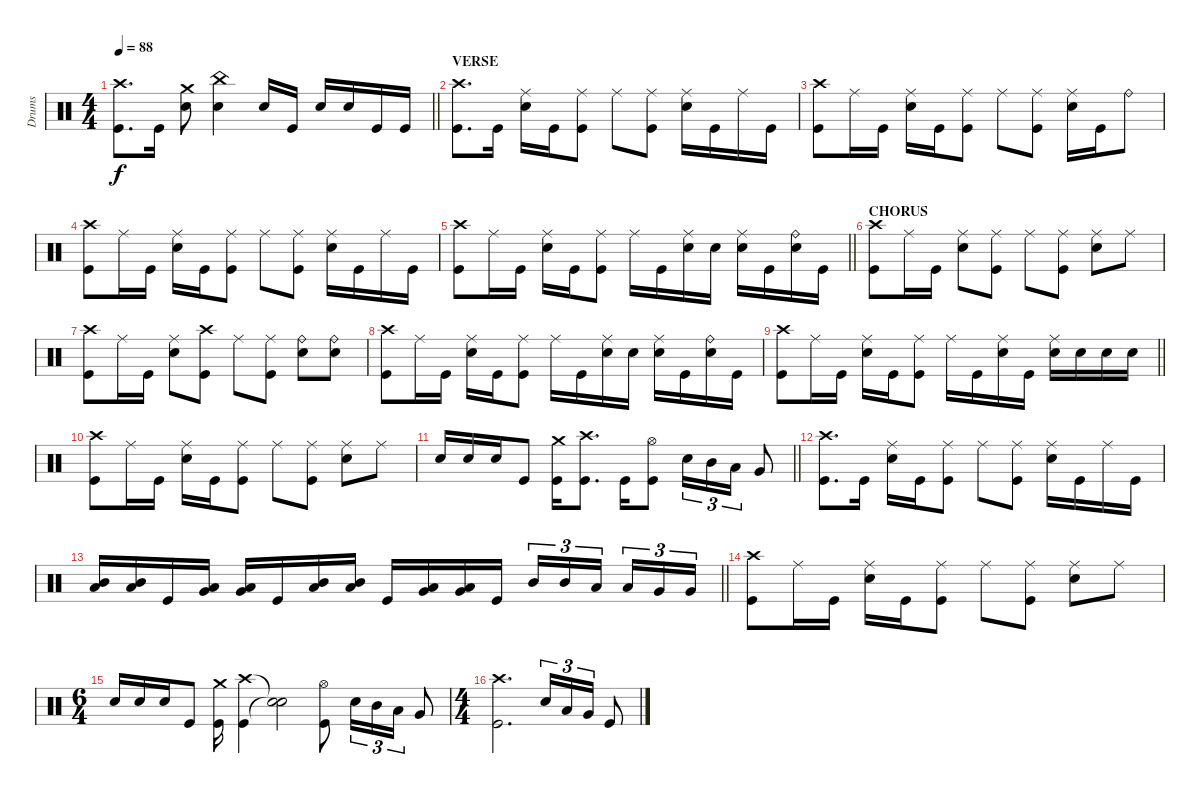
\track ("Drums" "Drums") {instrument percussion}
\staff
\articulation defaults
\ts (4 4)
\tempo 88
\clef neutral
\barLineRight lightlight
\ks c
("Crash high (hit)" "Kick (hit)").8{d dy f} "Kick (hit)".16 ("Crash medium (hit)" "Electric Snare (hit)").8 ("China (hit)" "Electric Snare (hit)").4 "Electric Snare (hit)".16 "Kick (hit)".16 "Electric Snare (hit)".16 "Electric Snare (hit)".16 "Kick (hit)".16 "Kick (hit)".16 |
\section ("" "VERSE")
("Crash high (hit)" "Kick (hit)").8{d} "Kick (hit)".16 ("Ride (middle)" "Electric Snare (hit)").16 "Kick (hit)".16 ("Ride (middle)" "Kick (hit)").8 "Ride (middle)".8 ("Ride (middle)" "Kick (hit)").8 ("Ride (middle)" "Electric Snare (hit)").16 "Kick (hit)".16 "Ride (middle)".16 "Kick (hit)".16 |
("Crash high (hit)" "Kick (hit)").8 "Ride (middle)".16 "Kick (hit)".16 ("Ride (middle)" "Electric Snare (hit)").16 "Kick (hit)".16 ("Ride (middle)" "Kick (hit)").8 "Ride (middle)".8 ("Ride (middle)" "Kick (hit)").8 ("Ride (middle)" "Electric Snare (hit)").16 "Kick (hit)".16 "Ride (bell)".8 |
("Crash high (hit)" "Kick (hit)").8 "Ride (middle)".16 "Kick (hit)".16 ("Ride (middle)" "Electric Snare (hit)").16 "Kick (hit)".16 ("Ride (middle)" "Kick (hit)").8 "Ride (middle)".8 ("Ride (middle)" "Kick (hit)").8 ("Ride (middle)" "Electric Snare (hit)").16 "Kick (hit)".16 "Ride (middle)".16 "Kick (hit)".16 |
\barLineRight lightlight
("Crash high (hit)" "Kick (hit)").8 "Ride (middle)".16 "Kick (hit)".16 ("Ride (middle)" "Electric Snare (hit)").16 "Kick (hit)".16 ("Ride (middle)" "Kick (hit)").8 "Ride (middle)".16 "Kick (hit)".16 ("Ride (middle)" "Electric Snare (hit)").16 "Electric Snare (hit)".16 ("Ride (middle)" "Electric Snare (hit)").16 "Kick (hit)".16 ("Ride (bell)" "Electric Snare (hit)").16 "Kick (hit)".16 |
\section ("" "CHORUS")
("Crash high (hit)" "Kick (hit)").8 "Ride (middle)".16 "Kick (hit)".16 ("Ride (middle)" "Electric Snare (hit)").8 ("Ride (middle)" "Kick (hit)").8 "Ride (middle)".8 ("Ride (middle)" "Kick (hit)").8 ("Ride (middle)" "Electric Snare (hit)").8 "Ride (middle)".8 |
("Crash high (hit)" "Kick (hit)").8 "Ride (middle)".16 "Kick (hit)".16 ("Ride (middle)" "Electric Snare (hit)").8 ("Crash high (hit)" "Kick (hit)").8 "Ride (middle)".8 ("Ride (middle)" "Kick (hit)").8 ("Ride (bell)" "Electric Snare (hit)").8 ("Ride (bell)" "Electric Snare (hit)").8 |
("Crash high (hit)" "Kick (hit)").8 "Ride (middle)".16 "Kick (hit)".16 ("Ride (middle)" "Electric Snare (hit)").16 "Kick (hit)".16 ("Ride (middle)" "Kick (hit)").8 "Ride (middle)".16 "Kick (hit)".16 ("Ride (middle)" "Electric Snare (hit)").16 "Electric Snare (hit)".16 ("Ride (middle)" "Electric Snare (hit)").16 "Kick (hit)".16 ("Ride (bell)" "Electric Snare (hit)").16 "Kick (hit)".16 |
\barLineRight lightlight
("Crash high (hit)" "Kick (hit)").8 "Ride (middle)".16 "Kick (hit)".16 ("Ride (middle)" "Electric Snare (hit)").16 "Kick (hit)".16 ("Ride (middle)" "Kick (hit)").8 "Ride (middle)".16 "Kick (hit)".16 ("Ride (middle)" "Electric Snare (hit)").16 "Kick (hit)".16 ("Ride (middle)" "Electric Snare (hit)").16 "Electric Snare (hit)".16 "Electric Snare (hit)".16 "Electric Snare (hit)".16 |
("Crash high (hit)" "Kick (hit)").8 "Ride (middle)".16 "Kick (hit)".16 ("Ride (middle)" "Electric Snare (hit)").16 "Kick (hit)".16 ("Ride (middle)" "Kick (hit)").8 "Ride (middle)".8 ("Ride (middle)" "Kick (hit)").8 ("Ride (middle)" "Electric Snare (hit)").8 "Ride (middle)".8 |
\barLineRight lightlight "Electric Snare (hit)".16 "Electric Snare (hit)".16 "Electric Snare (hit)".16 "Kick (hit)".8
("Crash medium (hit)" "Kick (hit)").16 ("Crash high (hit)" "Kick (hit)").8{d} "Kick (hit)".16 ("Hi-Hat (open)" "Kick (hit)").8 "Electric Snare (hit)".16{tu (3 2)} "Mid Tom (hit)".16{tu (3 2)} "Low Tom (hit)".16{tu (3 2)} "Very Low Tom (hit)".8 |
("Crash high (hit)" "Kick (hit)").8{d} "Kick (hit)".16 ("Ride (middle)" "Electric Snare (hit)").16 "Kick (hit)".16 ("Ride (middle)" "Kick (hit)").8 "Ride (middle)".8 ("Ride (middle)" "Kick (hit)").8 ("Ride (middle)" "Electric Snare (hit)").16 "Kick (hit)".16 "Ride (middle)".16 "Kick (hit)".16 |
\barLineRight lightlight
("Mid Tom (hit)" "Low Tom (hit)").16 ("Mid Tom (hit)" "Low Tom (hit)").16 "Kick (hit)".16 ("Low Tom (hit)" "Very Low Tom (hit)").16 ("Low Tom (hit)" "Very Low Tom (hit)").16 "Kick (hit)".16 ("Mid Tom (hit)" "Low Tom (hit)").16 ("Mid Tom (hit)" "Low Tom (hit)").16 "Kick (hit)".16 ("Low Tom (hit)" "Very Low Tom (hit)").16 ("Low Tom (hit)" "Very Low Tom (hit)").16 "Kick (hit)".16 "Mid Tom (hit)".16{tu (3 2)} "Mid Tom (hit)".16{tu (3 2)} "Low Tom (hit)".16{tu (3 2) beam splitsecondary} "Low Tom (hit)".16{tu (3 2)} "Very Low Tom (hit)".16{tu (3 2)} "Very Low Tom (hit)".16{tu (3 2)} |
("Crash high (hit)" "Kick (hit)").8 "Ride (middle)".16 "Kick (hit)".16 ("Ride (middle)" "Electric Snare (hit)").16 "Kick (hit)".16 ("Ride (middle)" "Kick (hit)").8 "Ride (middle)".8 ("Ride (middle)" "Kick (hit)").8 ("Ride (middle)" "Electric Snare (hit)").8 "Ride (middle)".8 |
\ts (6 4)
"Electric Snare (hit)".16 "Electric Snare (hit)".16 "Electric Snare (hit)".16 "Kick (hit)".8 ("Crash medium (hit)" "Kick (hit)").16 ("Crash high (hit)" "Kick (hit)").4 ("Snare (hit)"{t} "Snare (hit)"{t}).2 ("Hi-Hat (open)" "Kick (hit)").8 "Electric Snare (hit)".16{tu (3 2)} "Mid Tom (hit)".16{tu (3 2)} "Low Tom (hit)".16{tu (3 2)} "Very Low Tom (hit)".8 |
\ts (4 4)
("Crash high (hit)" "Kick (hit)").2{d} "Electric Snare (hit)".16{tu (3 2)} "Low Tom (hit)".16{tu (3 2)} "Very Low Tom (hit)".16{tu (3 2)} "Kick (hit)".8
